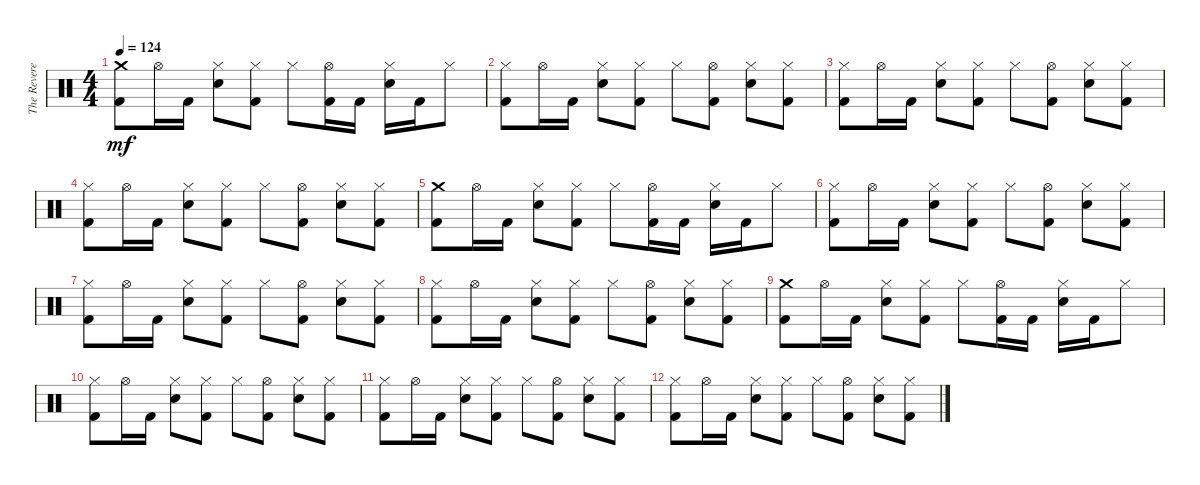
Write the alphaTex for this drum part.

\track ("The Reverend" "The Revere") {instrument percussion}
\staff {score}
\articulation defaults
\ts (4 4)
\tempo 124
\clef neutral
\ks c
("Crash medium (hit)" "Kick (hit) 2").8{dy mf} "Hi-Hat (open)".16 "Kick (hit) 2".16 ("Hi-Hat (closed)" "Electric Snare (hit)").8 ("Hi-Hat (closed)" "Kick (hit) 2").8 "Hi-Hat (closed)".8 ("Hi-Hat (open)" "Kick (hit) 2").16 "Kick (hit) 2".16 ("Hi-Hat (closed)" "Electric Snare (hit)").16 "Kick (hit) 2".16 "Hi-Hat (closed)".8 |
("Hi-Hat (closed)" "Kick (hit) 2").8 "Hi-Hat (open)".16 "Kick (hit) 2".16 ("Hi-Hat (closed)" "Electric Snare (hit)").8 ("Hi-Hat (closed)" "Kick (hit) 2").8 "Hi-Hat (closed)".8 ("Hi-Hat (open)" "Kick (hit) 2").8 ("Hi-Hat (closed)" "Electric Snare (hit)").8 ("Hi-Hat (closed)" "Kick (hit) 2").8 |
("Hi-Hat (closed)" "Kick (hit) 2").8 "Hi-Hat (open)".16 "Kick (hit) 2".16 ("Hi-Hat (closed)" "Electric Snare (hit)").8 ("Hi-Hat (closed)" "Kick (hit) 2").8 "Hi-Hat (closed)".8 ("Hi-Hat (open)" "Kick (hit) 2").8 ("Hi-Hat (closed)" "Electric Snare (hit)").8 ("Hi-Hat (closed)" "Kick (hit) 2").8 |
("Hi-Hat (closed)" "Kick (hit) 2").8 "Hi-Hat (open)".16 "Kick (hit) 2".16 ("Hi-Hat (closed)" "Electric Snare (hit)").8 ("Hi-Hat (closed)" "Kick (hit) 2").8 "Hi-Hat (closed)".8 ("Hi-Hat (open)" "Kick (hit) 2").8 ("Hi-Hat (closed)" "Electric Snare (hit)").8 ("Hi-Hat (closed)" "Kick (hit) 2").8 |
("Crash medium (hit)" "Kick (hit) 2").8 "Hi-Hat (open)".16 "Kick (hit) 2".16 ("Hi-Hat (closed)" "Electric Snare (hit)").8 ("Hi-Hat (closed)" "Kick (hit) 2").8 "Hi-Hat (closed)".8 ("Hi-Hat (open)" "Kick (hit) 2").16 "Kick (hit) 2".16 ("Hi-Hat (closed)" "Electric Snare (hit)").16 "Kick (hit) 2".16 "Hi-Hat (closed)".8 |
("Hi-Hat (closed)" "Kick (hit) 2").8 "Hi-Hat (open)".16 "Kick (hit) 2".16 ("Hi-Hat (closed)" "Electric Snare (hit)").8 ("Hi-Hat (closed)" "Kick (hit) 2").8 "Hi-Hat (closed)".8 ("Hi-Hat (open)" "Kick (hit) 2").8 ("Hi-Hat (closed)" "Electric Snare (hit)").8 ("Hi-Hat (closed)" "Kick (hit) 2").8 |
("Hi-Hat (closed)" "Kick (hit) 2").8 "Hi-Hat (open)".16 "Kick (hit) 2".16 ("Hi-Hat (closed)" "Electric Snare (hit)").8 ("Hi-Hat (closed)" "Kick (hit) 2").8 "Hi-Hat (closed)".8 ("Hi-Hat (open)" "Kick (hit) 2").8 ("Hi-Hat (closed)" "Electric Snare (hit)").8 ("Hi-Hat (closed)" "Kick (hit) 2").8 |
("Hi-Hat (closed)" "Kick (hit) 2").8 "Hi-Hat (open)".16 "Kick (hit) 2".16 ("Hi-Hat (closed)" "Electric Snare (hit)").8 ("Hi-Hat (closed)" "Kick (hit) 2").8 "Hi-Hat (closed)".8 ("Hi-Hat (open)" "Kick (hit) 2").8 ("Hi-Hat (closed)" "Electric Snare (hit)").8 ("Hi-Hat (closed)" "Kick (hit) 2").8 |
("Crash medium (hit)" "Kick (hit) 2").8 "Hi-Hat (open)".16 "Kick (hit) 2".16 ("Hi-Hat (closed)" "Electric Snare (hit)").8 ("Hi-Hat (closed)" "Kick (hit) 2").8 "Hi-Hat (closed)".8 ("Hi-Hat (open)" "Kick (hit) 2").16 "Kick (hit) 2".16 ("Hi-Hat (closed)" "Electric Snare (hit)").16 "Kick (hit) 2".16 "Hi-Hat (closed)".8 |
("Hi-Hat (closed)" "Kick (hit) 2").8 "Hi-Hat (open)".16 "Kick (hit) 2".16 ("Hi-Hat (closed)" "Electric Snare (hit)").8 ("Hi-Hat (closed)" "Kick (hit) 2").8 "Hi-Hat (closed)".8 ("Hi-Hat (open)" "Kick (hit) 2").8 ("Hi-Hat (closed)" "Electric Snare (hit)").8 ("Hi-Hat (closed)" "Kick (hit) 2").8 |
("Hi-Hat (closed)" "Kick (hit) 2").8 "Hi-Hat (open)".16 "Kick (hit) 2".16 ("Hi-Hat (closed)" "Electric Snare (hit)").8 ("Hi-Hat (closed)" "Kick (hit) 2").8 "Hi-Hat (closed)".8 ("Hi-Hat (open)" "Kick (hit) 2").8 ("Hi-Hat (closed)" "Electric Snare (hit)").8 ("Hi-Hat (closed)" "Kick (hit) 2").8 |
("Hi-Hat (closed)" "Kick (hit) 2").8 "Hi-Hat (open)".16 "Kick (hit) 2".16 ("Hi-Hat (closed)" "Electric Snare (hit)").8 ("Hi-Hat (closed)" "Kick (hit) 2").8 "Hi-Hat (closed)".8 ("Hi-Hat (open)" "Kick (hit) 2").8 ("Hi-Hat (closed)" "Electric Snare (hit)").8 ("Hi-Hat (closed)" "Kick (hit) 2").8
